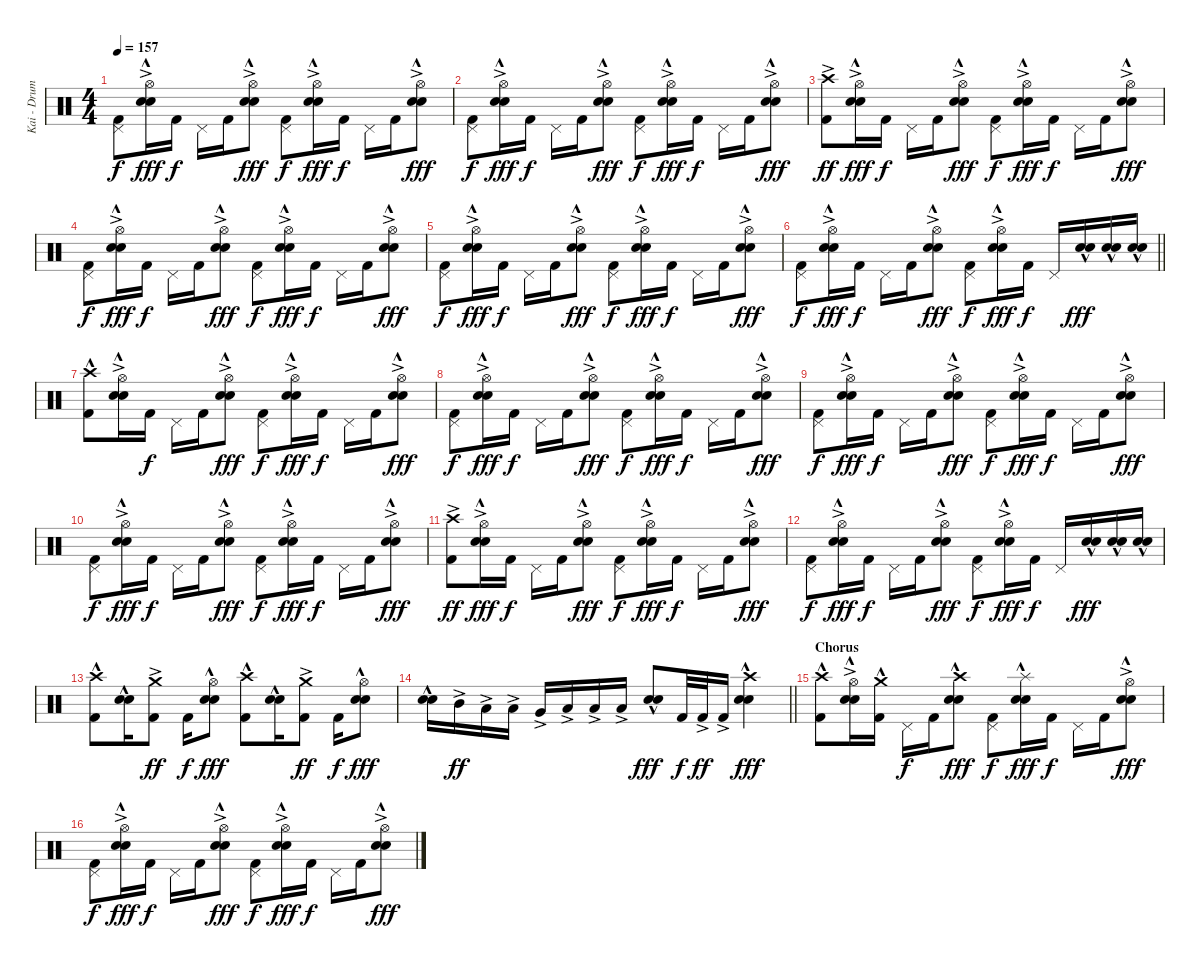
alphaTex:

\track ("Kai - Drums" "Kai - Drum") {instrument percussion}
\staff {score}
\articulation defaults
\ts (4 4)
\tempo 157
\clef neutral
\ks c
("Pedal Hi-Hat (hit)" "Kick (hit) 2").8{dy f} ("Hi-Hat (open)"{ac} "Electric Snare (hit)"{hac} "Snare (hit) 2").16{dy fff} "Kick (hit) 2".16{dy f} "Pedal Hi-Hat (hit)".16 "Kick (hit) 2".16 ("Hi-Hat (open)"{ac} "Electric Snare (hit)"{hac} "Snare (hit) 2").8{dy fff} ("Pedal Hi-Hat (hit)" "Kick (hit) 2").8{dy f} ("Hi-Hat (open)"{ac} "Electric Snare (hit)"{hac} "Snare (hit) 2").16{dy fff} "Kick (hit) 2".16{dy f} "Pedal Hi-Hat (hit)".16 "Kick (hit) 2".16 ("Hi-Hat (open)"{ac} "Electric Snare (hit)"{hac} "Snare (hit) 2").8{dy fff} |
("Pedal Hi-Hat (hit)" "Kick (hit) 2").8{dy f} ("Hi-Hat (open)"{ac} "Electric Snare (hit)"{hac} "Snare (hit) 2").16{dy fff} "Kick (hit) 2".16{dy f} "Pedal Hi-Hat (hit)".16 "Kick (hit) 2".16 ("Hi-Hat (open)"{ac} "Electric Snare (hit)"{hac} "Snare (hit) 2").8{dy fff} ("Pedal Hi-Hat (hit)" "Kick (hit) 2").8{dy f} ("Hi-Hat (open)"{ac} "Electric Snare (hit)"{hac} "Snare (hit) 2").16{dy fff} "Kick (hit) 2".16{dy f} "Pedal Hi-Hat (hit)".16 "Kick (hit) 2".16 ("Hi-Hat (open)"{ac} "Electric Snare (hit)"{hac} "Snare (hit) 2").8{dy fff} |
("Crash high (hit)"{ac} "Kick (hit) 2").8{dy ff} ("Hi-Hat (open)"{ac} "Electric Snare (hit)"{hac} "Snare (hit) 2").16{dy fff} "Kick (hit) 2".16{dy f} "Pedal Hi-Hat (hit)".16 "Kick (hit) 2".16 ("Hi-Hat (open)"{ac} "Electric Snare (hit)"{hac} "Snare (hit) 2").8{dy fff} ("Pedal Hi-Hat (hit)" "Kick (hit) 2").8{dy f} ("Hi-Hat (open)"{ac} "Electric Snare (hit)"{hac} "Snare (hit) 2").16{dy fff} "Kick (hit) 2".16{dy f} "Pedal Hi-Hat (hit)".16 "Kick (hit) 2".16 ("Hi-Hat (open)"{ac} "Electric Snare (hit)"{hac} "Snare (hit) 2").8{dy fff} |
("Pedal Hi-Hat (hit)" "Kick (hit) 2").8{dy f} ("Hi-Hat (open)"{ac} "Electric Snare (hit)"{hac} "Snare (hit) 2").16{dy fff} "Kick (hit) 2".16{dy f} "Pedal Hi-Hat (hit)".16 "Kick (hit) 2".16 ("Hi-Hat (open)"{ac} "Electric Snare (hit)"{hac} "Snare (hit) 2").8{dy fff} ("Pedal Hi-Hat (hit)" "Kick (hit) 2").8{dy f} ("Hi-Hat (open)"{ac} "Electric Snare (hit)"{hac} "Snare (hit) 2").16{dy fff} "Kick (hit) 2".16{dy f} "Pedal Hi-Hat (hit)".16 "Kick (hit) 2".16 ("Hi-Hat (open)"{ac} "Electric Snare (hit)"{hac} "Snare (hit) 2").8{dy fff} |
("Pedal Hi-Hat (hit)" "Kick (hit) 2").8{dy f} ("Hi-Hat (open)"{ac} "Electric Snare (hit)"{hac} "Snare (hit) 2").16{dy fff} "Kick (hit) 2".16{dy f} "Pedal Hi-Hat (hit)".16 "Kick (hit) 2".16 ("Hi-Hat (open)"{ac} "Electric Snare (hit)"{hac} "Snare (hit) 2").8{dy fff} ("Pedal Hi-Hat (hit)" "Kick (hit) 2").8{dy f} ("Hi-Hat (open)"{ac} "Electric Snare (hit)"{hac} "Snare (hit) 2").16{dy fff} "Kick (hit) 2".16{dy f} "Pedal Hi-Hat (hit)".16 "Kick (hit) 2".16 ("Hi-Hat (open)"{ac} "Electric Snare (hit)"{hac} "Snare (hit) 2").8{dy fff} |
\barLineRight lightlight
("Pedal Hi-Hat (hit)" "Kick (hit) 2").8{dy f} ("Hi-Hat (open)"{ac} "Electric Snare (hit)"{hac} "Snare (hit) 2").16{dy fff} "Kick (hit) 2".16{dy f} "Pedal Hi-Hat (hit)".16 "Kick (hit) 2".16 ("Hi-Hat (open)"{ac} "Electric Snare (hit)"{hac} "Snare (hit) 2").8{dy fff} ("Pedal Hi-Hat (hit)" "Kick (hit) 2").8{dy f} ("Hi-Hat (open)"{ac} "Electric Snare (hit)"{hac} "Snare (hit) 2").16{dy fff} "Kick (hit) 2".16{dy f} "Pedal Hi-Hat (hit)".16 ("Electric Snare (hit)"{hac} "Snare (hit) 2").16{dy fff} ("Electric Snare (hit)"{hac} "Snare (hit) 2").16 ("Electric Snare (hit)"{hac} "Snare (hit) 2").16 |
\section ("" "")
("Crash high (hit)"{hac} "Kick (hit) 2").8 ("Hi-Hat (open)"{ac} "Electric Snare (hit)"{hac} "Snare (hit) 2").16 "Kick (hit) 2".16{dy f} "Pedal Hi-Hat (hit)".16 "Kick (hit) 2".16 ("Hi-Hat (open)"{ac} "Electric Snare (hit)"{hac} "Snare (hit) 2").8{dy fff} ("Pedal Hi-Hat (hit)" "Kick (hit) 2").8{dy f} ("Hi-Hat (open)"{ac} "Electric Snare (hit)"{hac} "Snare (hit) 2").16{dy fff} "Kick (hit) 2".16{dy f} "Pedal Hi-Hat (hit)".16 "Kick (hit) 2".16 ("Hi-Hat (open)"{ac} "Electric Snare (hit)"{hac} "Snare (hit) 2").8{dy fff} |
("Pedal Hi-Hat (hit)" "Kick (hit) 2").8{dy f} ("Hi-Hat (open)"{ac} "Electric Snare (hit)"{hac} "Snare (hit) 2").16{dy fff} "Kick (hit) 2".16{dy f} "Pedal Hi-Hat (hit)".16 "Kick (hit) 2".16 ("Hi-Hat (open)"{ac} "Electric Snare (hit)"{hac} "Snare (hit) 2").8{dy fff} ("Pedal Hi-Hat (hit)" "Kick (hit) 2").8{dy f} ("Hi-Hat (open)"{ac} "Electric Snare (hit)"{hac} "Snare (hit) 2").16{dy fff} "Kick (hit) 2".16{dy f} "Pedal Hi-Hat (hit)".16 "Kick (hit) 2".16 ("Hi-Hat (open)"{ac} "Electric Snare (hit)"{hac} "Snare (hit) 2").8{dy fff} |
("Pedal Hi-Hat (hit)" "Kick (hit) 2").8{dy f} ("Hi-Hat (open)"{ac} "Electric Snare (hit)"{hac} "Snare (hit) 2").16{dy fff} "Kick (hit) 2".16{dy f} "Pedal Hi-Hat (hit)".16 "Kick (hit) 2".16 ("Hi-Hat (open)"{ac} "Electric Snare (hit)"{hac} "Snare (hit) 2").8{dy fff} ("Pedal Hi-Hat (hit)" "Kick (hit) 2").8{dy f} ("Hi-Hat (open)"{ac} "Electric Snare (hit)"{hac} "Snare (hit) 2").16{dy fff} "Kick (hit) 2".16{dy f} "Pedal Hi-Hat (hit)".16 "Kick (hit) 2".16 ("Hi-Hat (open)"{ac} "Electric Snare (hit)"{hac} "Snare (hit) 2").8{dy fff} |
("Pedal Hi-Hat (hit)" "Kick (hit) 2").8{dy f} ("Hi-Hat (open)"{ac} "Electric Snare (hit)"{hac} "Snare (hit) 2").16{dy fff} "Kick (hit) 2".16{dy f} "Pedal Hi-Hat (hit)".16 "Kick (hit) 2".16 ("Hi-Hat (open)"{ac} "Electric Snare (hit)"{hac} "Snare (hit) 2").8{dy fff} ("Pedal Hi-Hat (hit)" "Kick (hit) 2").8{dy f} ("Hi-Hat (open)"{ac} "Electric Snare (hit)"{hac} "Snare (hit) 2").16{dy fff} "Kick (hit) 2".16{dy f} "Pedal Hi-Hat (hit)".16 "Kick (hit) 2".16 ("Hi-Hat (open)"{ac} "Electric Snare (hit)"{hac} "Snare (hit) 2").8{dy fff} |
("Crash high (hit)"{ac} "Kick (hit) 2").8{dy ff} ("Hi-Hat (open)"{ac} "Electric Snare (hit)"{hac} "Snare (hit) 2").16{dy fff} "Kick (hit) 2".16{dy f} "Pedal Hi-Hat (hit)".16 "Kick (hit) 2".16 ("Hi-Hat (open)"{ac} "Electric Snare (hit)"{hac} "Snare (hit) 2").8{dy fff} ("Pedal Hi-Hat (hit)" "Kick (hit) 2").8{dy f} ("Hi-Hat (open)"{ac} "Electric Snare (hit)"{hac} "Snare (hit) 2").16{dy fff} "Kick (hit) 2".16{dy f} "Pedal Hi-Hat (hit)".16 "Kick (hit) 2".16 ("Hi-Hat (open)"{ac} "Electric Snare (hit)"{hac} "Snare (hit) 2").8{dy fff} |
("Pedal Hi-Hat (hit)" "Kick (hit) 2").8{dy f} ("Hi-Hat (open)"{ac} "Electric Snare (hit)"{hac} "Snare (hit) 2").16{dy fff} "Kick (hit) 2".16{dy f} "Pedal Hi-Hat (hit)".16 "Kick (hit) 2".16 ("Hi-Hat (open)"{ac} "Electric Snare (hit)"{hac} "Snare (hit) 2").8{dy fff} ("Pedal Hi-Hat (hit)" "Kick (hit) 2").8{dy f} ("Hi-Hat (open)"{ac} "Electric Snare (hit)"{hac} "Snare (hit) 2").16{dy fff} "Kick (hit) 2".16{dy f} "Pedal Hi-Hat (hit)".16 ("Electric Snare (hit)"{hac} "Snare (hit) 2").16{dy fff} ("Electric Snare (hit)"{hac} "Snare (hit) 2").16 ("Electric Snare (hit)"{hac} "Snare (hit) 2").16 |
("Crash high (hit)"{hac} "Kick (hit) 2").8 ("Electric Snare (hit)"{hac} "Snare (hit) 2").16 ("Crash medium (hit)"{ac} "Kick (hit) 2").8{dy ff} "Kick (hit) 2".16{dy f} ("Hi-Hat (open)" "Electric Snare (hit)"{hac} "Snare (hit) 2").8{dy fff} ("Crash high (hit)"{hac} "Kick (hit) 2").8 ("Electric Snare (hit)"{hac} "Snare (hit) 2").16 ("Crash medium (hit)"{ac} "Kick (hit) 2").8{dy ff} "Kick (hit) 2".16{dy f} ("Hi-Hat (open)" "Electric Snare (hit)"{hac} "Snare (hit) 2").8{dy fff} |
\barLineRight lightlight
("Electric Snare (hit)"{hac} "Snare (hit) 2").16 "Mid Tom (hit)"{ac}.16{dy ff} "Low Tom (hit)"{ac}.16 "Low Tom (hit)"{ac}.16 "Very Low Tom (hit)"{ac}.16 "Low Floor Tom (hit)"{ac}.16 "Low Tom (hit)"{ac}.16 "Low Floor Tom (hit)"{ac}.16 ("Electric Snare (hit)"{hac} "Snare (hit) 2").8{dy fff} "Kick (hit) 2".32{dy f} "Kick (hit) 2"{ac}.32{dy ff} "Kick (hit) 2"{ac}.16 ("Crash high (hit)" "Electric Snare (hit)"{hac} "Snare (hit) 2").4{dy fff} |
\section ("" "Chorus")
("Crash high (hit)"{hac} "Kick (hit) 2").8 ("Hi-Hat (open)"{ac} "Electric Snare (hit)"{hac} "Snare (hit) 2").16 ("Crash medium (hit)"{hac} "Kick (hit) 2").16 "Pedal Hi-Hat (hit)".16{dy f} "Kick (hit) 2".16 ("Crash high (hit)"{hac} "Electric Snare (hit)"{hac} "Snare (hit) 2").8{dy fff} ("Pedal Hi-Hat (hit)" "Kick (hit) 2").8{dy f} ("Splash (hit)"{hac} "Electric Snare (hit)"{hac} "Snare (hit) 2").16{dy fff} "Kick (hit) 2".16{dy f} "Pedal Hi-Hat (hit)".16 "Kick (hit) 2".16 ("Hi-Hat (open)"{ac} "Electric Snare (hit)"{hac} "Snare (hit) 2").8{dy fff} |
("Pedal Hi-Hat (hit)" "Kick (hit) 2").8{dy f} ("Hi-Hat (open)"{ac} "Electric Snare (hit)"{hac} "Snare (hit) 2").16{dy fff} "Kick (hit) 2".16{dy f} "Pedal Hi-Hat (hit)".16 "Kick (hit) 2".16 ("Hi-Hat (open)"{ac} "Electric Snare (hit)"{hac} "Snare (hit) 2").8{dy fff} ("Pedal Hi-Hat (hit)" "Kick (hit) 2").8{dy f} ("Hi-Hat (open)"{ac} "Electric Snare (hit)"{hac} "Snare (hit) 2").16{dy fff} "Kick (hit) 2".16{dy f} "Pedal Hi-Hat (hit)".16 "Kick (hit) 2".16 ("Hi-Hat (open)"{ac} "Electric Snare (hit)"{hac} "Snare (hit) 2").8{dy fff}
